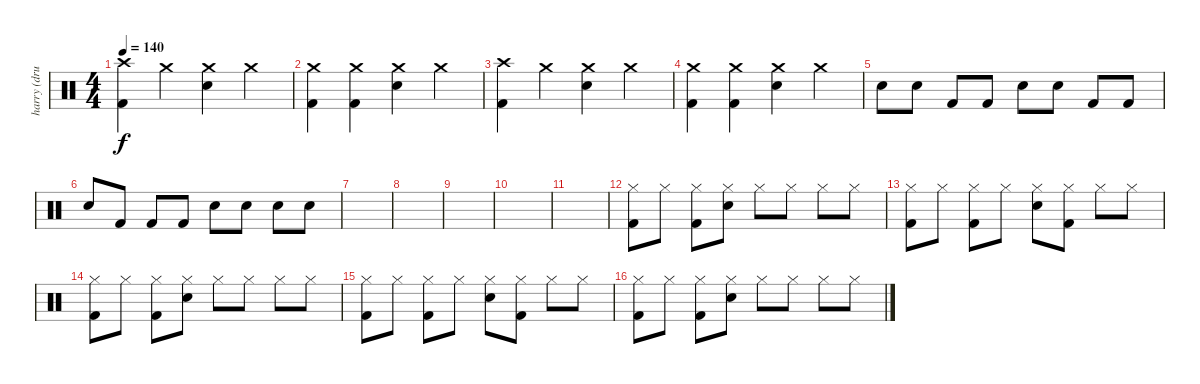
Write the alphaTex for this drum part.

\track ("harry (drum)" "harry (dru") {instrument percussion}
\staff {score}
\articulation defaults
\ts (4 4)
\tempo 140
\clef neutral
\ks c
("Kick (hit) 2" "Crash high (hit)").4{dy f} "Crash medium (hit)".4 ("Snare (hit) 2" "Crash medium (hit)").4 "Crash medium (hit)".4 |
("Kick (hit) 2" "Crash medium (hit)").4 ("Kick (hit) 2" "Crash medium (hit)").4 ("Snare (hit) 2" "Crash medium (hit)").4 "Crash medium (hit)".4 |
("Kick (hit) 2" "Crash high (hit)").4 "Crash medium (hit)".4 ("Snare (hit) 2" "Crash medium (hit)").4 "Crash medium (hit)".4 |
("Kick (hit) 2" "Crash medium (hit)").4 ("Kick (hit) 2" "Crash medium (hit)").4 ("Snare (hit) 2" "Crash medium (hit)").4 "Crash medium (hit)".4 |
"Snare (hit) 2".8 "Snare (hit) 2".8 "Kick (hit) 2".8 "Kick (hit) 2".8 "Snare (hit) 2".8 "Snare (hit) 2".8 "Kick (hit) 2".8 "Kick (hit) 2".8 |
"Snare (hit) 2".8 "Kick (hit) 2".8 "Kick (hit) 2".8 "Kick (hit) 2".8 "Snare (hit) 2".8 "Snare (hit) 2".8 "Snare (hit) 2".8 "Snare (hit) 2".8 |
|
|
|
|
|
("Hi-Hat (closed)" "Kick (hit) 2").8 "Hi-Hat (closed)".8 ("Hi-Hat (closed)" "Kick (hit) 2").8 ("Hi-Hat (closed)" "Snare (hit) 2").8 "Hi-Hat (closed)".8 "Hi-Hat (closed)".8 "Hi-Hat (closed)".8 "Hi-Hat (closed)".8 |
("Hi-Hat (closed)" "Kick (hit) 2").8 "Hi-Hat (closed)".8 ("Hi-Hat (closed)" "Kick (hit) 2").8 "Hi-Hat (closed)".8 ("Hi-Hat (closed)" "Snare (hit) 2").8 ("Hi-Hat (closed)" "Kick (hit) 2").8 "Hi-Hat (closed)".8 "Hi-Hat (closed)".8 |
("Hi-Hat (closed)" "Kick (hit) 2").8 "Hi-Hat (closed)".8 ("Hi-Hat (closed)" "Kick (hit) 2").8 ("Hi-Hat (closed)" "Snare (hit) 2").8 "Hi-Hat (closed)".8 "Hi-Hat (closed)".8 "Hi-Hat (closed)".8 "Hi-Hat (closed)".8 |
("Hi-Hat (closed)" "Kick (hit) 2").8 "Hi-Hat (closed)".8 ("Hi-Hat (closed)" "Kick (hit) 2").8 "Hi-Hat (closed)".8 ("Hi-Hat (closed)" "Snare (hit) 2").8 ("Hi-Hat (closed)" "Kick (hit) 2").8 "Hi-Hat (closed)".8 "Hi-Hat (closed)".8 |
("Hi-Hat (closed)" "Kick (hit) 2").8 "Hi-Hat (closed)".8 ("Hi-Hat (closed)" "Kick (hit) 2").8 ("Hi-Hat (closed)" "Snare (hit) 2").8 "Hi-Hat (closed)".8 "Hi-Hat (closed)".8 "Hi-Hat (closed)".8 "Hi-Hat (closed)".8
